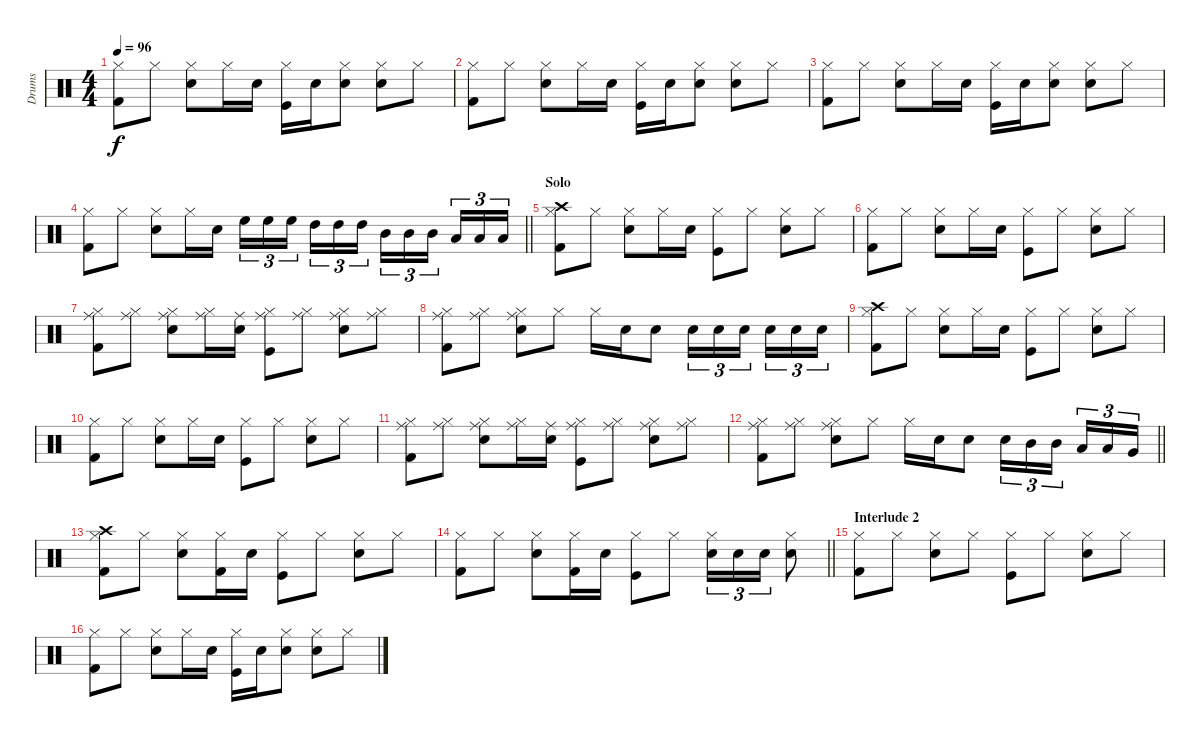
\track ("Drums" "Drums") {instrument percussion}
\staff {score}
\articulation defaults
\ts (4 4)
\tempo 96
\clef neutral
\ks c
("Kick (hit) 2" "Hi-Hat (closed)").8{dy f} "Hi-Hat (closed)".8 ("Snare (hit) 2" "Hi-Hat (closed)").8 "Hi-Hat (closed)".16 "Snare (hit) 2".16 ("Kick (hit)" "Hi-Hat (closed)").16 "Snare (hit) 2".16 ("Snare (hit) 2" "Hi-Hat (closed)").8 ("Snare (hit) 2" "Hi-Hat (closed)").8 "Hi-Hat (closed)".8 |
("Kick (hit) 2" "Hi-Hat (closed)").8 "Hi-Hat (closed)".8 ("Snare (hit) 2" "Hi-Hat (closed)").8 "Hi-Hat (closed)".16 "Snare (hit) 2".16 ("Kick (hit)" "Hi-Hat (closed)").16 "Snare (hit) 2".16 ("Snare (hit) 2" "Hi-Hat (closed)").8 ("Snare (hit) 2" "Hi-Hat (closed)").8 "Hi-Hat (closed)".8 |
("Kick (hit) 2" "Hi-Hat (closed)").8 "Hi-Hat (closed)".8 ("Snare (hit) 2" "Hi-Hat (closed)").8 "Hi-Hat (closed)".16 "Snare (hit) 2".16 ("Kick (hit)" "Hi-Hat (closed)").16 "Snare (hit) 2".16 ("Snare (hit) 2" "Hi-Hat (closed)").8 ("Snare (hit) 2" "Hi-Hat (closed)").8 "Hi-Hat (closed)".8 |
\barLineRight lightlight
("Kick (hit) 2" "Hi-Hat (closed)").8 "Hi-Hat (closed)".8 ("Snare (hit) 2" "Hi-Hat (closed)").8 "Hi-Hat (closed)".16 "Snare (hit) 2".16 "High Floor Tom (hit)".16{tu (3 2)} "High Floor Tom (hit)".16{tu (3 2)} "High Floor Tom (hit)".16{tu (3 2) beam splitsecondary} "High Tom (hit)".16{tu (3 2)} "High Tom (hit)".16{tu (3 2)} "High Tom (hit)".16{tu (3 2)} "Mid Tom (hit)".16{tu (3 2)} "Mid Tom (hit)".16{tu (3 2)} "Mid Tom (hit)".16{tu (3 2) beam splitsecondary} "Low Tom (hit)".16{tu (3 2)} "Low Tom (hit)".16{tu (3 2)} "Low Tom (hit)".16{tu (3 2)} |
\section ("" "Solo")
("Kick (hit) 2" "Hi-Hat (closed)" "Crash high (hit)").8 "Hi-Hat (closed)".8 ("Snare (hit) 2" "Hi-Hat (closed)").8 "Hi-Hat (closed)".16 "Snare (hit) 2".16 ("Kick (hit)" "Hi-Hat (closed)").8 "Hi-Hat (closed)".8 ("Snare (hit) 2" "Hi-Hat (closed)").8 "Hi-Hat (closed)".8 |
("Kick (hit) 2" "Hi-Hat (closed)").8 "Hi-Hat (closed)".8 ("Snare (hit) 2" "Hi-Hat (closed)").8 "Hi-Hat (closed)".16 "Snare (hit) 2".16 ("Kick (hit)" "Hi-Hat (closed)").8 "Hi-Hat (closed)".8 ("Snare (hit) 2" "Hi-Hat (closed)").8 "Hi-Hat (closed)".8 |
("Kick (hit) 2" "Hi-Hat (closed)" "Ride (middle)").8 ("Hi-Hat (closed)" "Ride (middle)").8 ("Snare (hit) 2" "Hi-Hat (closed)" "Ride (middle)").8 ("Hi-Hat (closed)" "Ride (middle)").16 ("Snare (hit) 2" "Ride (middle)").16 ("Kick (hit)" "Hi-Hat (closed)" "Ride (middle)").8 ("Hi-Hat (closed)" "Ride (middle)").8 ("Snare (hit) 2" "Hi-Hat (closed)" "Ride (middle)").8 ("Hi-Hat (closed)" "Ride (middle)").8 |
("Kick (hit) 2" "Hi-Hat (closed)" "Ride (middle)").8 ("Hi-Hat (closed)" "Ride (middle)").8 ("Snare (hit) 2" "Hi-Hat (closed)" "Ride (middle)").8 "Hi-Hat (closed)".8 "Hi-Hat (closed)".16 "Snare (hit) 2".16 "Snare (hit) 2".8 "Snare (hit) 2".16{tu (3 2)} "Snare (hit) 2".16{tu (3 2)} "Snare (hit) 2".16{tu (3 2) beam splitsecondary} "Snare (hit) 2".16{tu (3 2)} "Snare (hit) 2".16{tu (3 2)} "Snare (hit) 2".16{tu (3 2)} |
("Kick (hit) 2" "Hi-Hat (closed)" "Crash high (hit)").8 "Hi-Hat (closed)".8 ("Snare (hit) 2" "Hi-Hat (closed)").8 "Hi-Hat (closed)".16 "Snare (hit) 2".16 ("Kick (hit)" "Hi-Hat (closed)").8 "Hi-Hat (closed)".8 ("Snare (hit) 2" "Hi-Hat (closed)").8 "Hi-Hat (closed)".8 |
("Kick (hit) 2" "Hi-Hat (closed)").8 "Hi-Hat (closed)".8 ("Snare (hit) 2" "Hi-Hat (closed)").8 "Hi-Hat (closed)".16 "Snare (hit) 2".16 ("Kick (hit)" "Hi-Hat (closed)").8 "Hi-Hat (closed)".8 ("Snare (hit) 2" "Hi-Hat (closed)").8 "Hi-Hat (closed)".8 |
("Kick (hit) 2" "Hi-Hat (closed)" "Ride (middle)").8 ("Hi-Hat (closed)" "Ride (middle)").8 ("Snare (hit) 2" "Hi-Hat (closed)" "Ride (middle)").8 ("Hi-Hat (closed)" "Ride (middle)").16 ("Snare (hit) 2" "Ride (middle)").16 ("Kick (hit)" "Hi-Hat (closed)" "Ride (middle)").8 ("Hi-Hat (closed)" "Ride (middle)").8 ("Snare (hit) 2" "Hi-Hat (closed)" "Ride (middle)").8 ("Hi-Hat (closed)" "Ride (middle)").8 |
\barLineRight lightlight
("Kick (hit) 2" "Hi-Hat (closed)" "Ride (middle)").8 ("Hi-Hat (closed)" "Ride (middle)").8 ("Snare (hit) 2" "Hi-Hat (closed)" "Ride (middle)").8 "Hi-Hat (closed)".8 "Hi-Hat (closed)".16 "Snare (hit) 2".16 "Snare (hit) 2".8 "Snare (hit) 2".16{tu (3 2)} "Mid Tom (hit)".16{tu (3 2)} "Mid Tom (hit)".16{tu (3 2) beam splitsecondary} "Low Tom (hit)".16{tu (3 2)} "Low Tom (hit)".16{tu (3 2)} "Very Low Tom (hit)".16{tu (3 2)} |
("Kick (hit) 2" "Hi-Hat (closed)" "Crash high (hit)").8 "Hi-Hat (closed)".8 ("Snare (hit) 2" "Hi-Hat (closed)").8 ("Kick (hit) 2" "Hi-Hat (closed)").16 "Snare (hit) 2".16 ("Kick (hit)" "Hi-Hat (closed)").8 "Hi-Hat (closed)".8 ("Snare (hit) 2" "Hi-Hat (closed)").8 "Hi-Hat (closed)".8 |
\barLineRight lightlight
("Kick (hit) 2" "Hi-Hat (closed)").8 "Hi-Hat (closed)".8 ("Snare (hit) 2" "Hi-Hat (closed)").8 ("Kick (hit) 2" "Hi-Hat (closed)").16 "Snare (hit) 2".16 ("Kick (hit)" "Hi-Hat (closed)").8 "Hi-Hat (closed)".8 ("Snare (hit) 2" "Hi-Hat (closed)").16{tu (3 2)} "Snare (hit) 2".16{tu (3 2)} "Snare (hit) 2".16{tu (3 2)} ("Snare (hit) 2" "Hi-Hat (closed)").8 |
\section ("" "Interlude 2")
("Kick (hit) 2" "Hi-Hat (closed)").8 "Hi-Hat (closed)".8 ("Snare (hit) 2" "Hi-Hat (closed)").8 "Hi-Hat (closed)".8 ("Kick (hit)" "Hi-Hat (closed)").8 "Hi-Hat (closed)".8 ("Snare (hit) 2" "Hi-Hat (closed)").8 "Hi-Hat (closed)".8 |
("Kick (hit) 2" "Hi-Hat (closed)").8 "Hi-Hat (closed)".8 ("Snare (hit) 2" "Hi-Hat (closed)").8 "Hi-Hat (closed)".16 "Snare (hit) 2".16 ("Kick (hit)" "Hi-Hat (closed)").16 "Snare (hit) 2".16 ("Snare (hit) 2" "Hi-Hat (closed)").8 ("Snare (hit) 2" "Hi-Hat (closed)").8 "Hi-Hat (closed)".8
